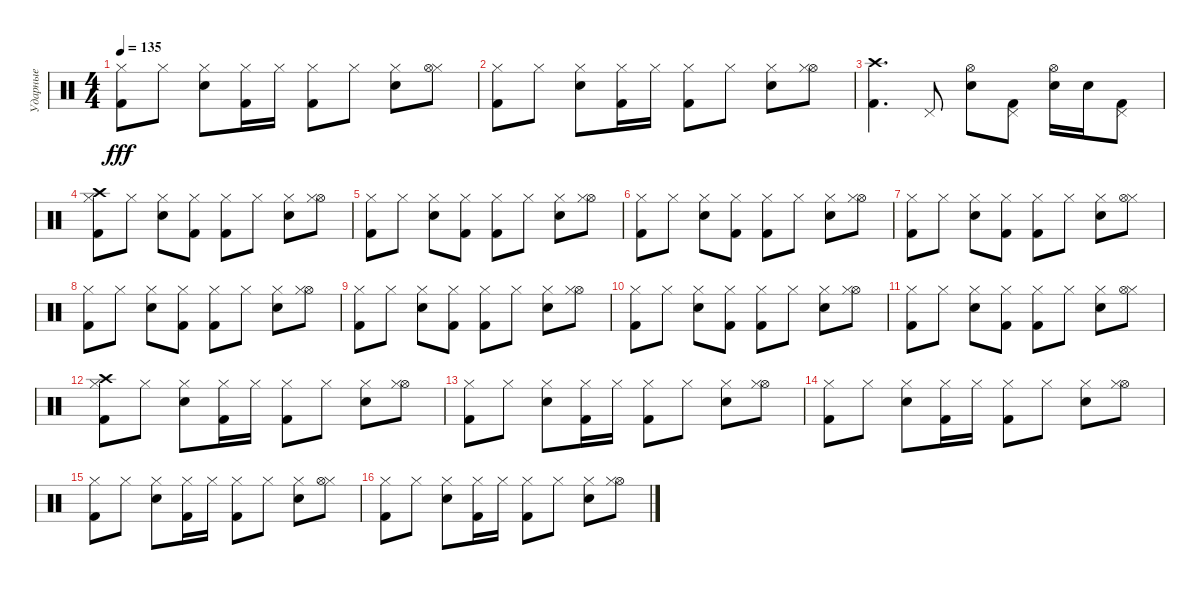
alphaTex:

\track ("Ударные" "Ударные") {instrument percussion}
\staff {score}
\articulation defaults
\ts (4 4)
\tempo 135
\clef neutral
\ks c
("Hi-Hat (closed)" "Kick (hit) 2").8{dy fff} "Hi-Hat (closed)".8 ("Hi-Hat (closed)" "Snare (hit) 2").8 ("Kick (hit) 2" "Hi-Hat (closed)").16 "Hi-Hat (closed)".16 ("Hi-Hat (closed)" "Kick (hit) 2").8 "Hi-Hat (closed)".8 ("Snare (hit) 2" "Hi-Hat (closed)").8 ("Hi-Hat (closed)" "Hi-Hat (open)").8 |
("Hi-Hat (closed)" "Kick (hit) 2").8 "Hi-Hat (closed)".8 ("Hi-Hat (closed)" "Snare (hit) 2").8 ("Hi-Hat (closed)" "Kick (hit) 2").16 "Hi-Hat (closed)".16 ("Hi-Hat (closed)" "Kick (hit) 2").8 "Hi-Hat (closed)".8 ("Snare (hit) 2" "Hi-Hat (closed)").8 ("Hi-Hat (open)" "Hi-Hat (closed)").8 |
("Crash high (hit)" "Kick (hit) 2").4{d} "Pedal Hi-Hat (hit)".8 ("Snare (hit) 2" "Hi-Hat (open)").8 ("Kick (hit) 2" "Pedal Hi-Hat (hit)").8 ("Hi-Hat (open)" "Snare (hit) 2").16 "Snare (hit) 2".16 ("Kick (hit) 2" "Pedal Hi-Hat (hit)").8 |
("Crash high (hit)" "Hi-Hat (closed)" "Kick (hit) 2").8 "Hi-Hat (closed)".8 ("Hi-Hat (closed)" "Snare (hit) 2").8 ("Hi-Hat (closed)" "Kick (hit) 2").8 ("Hi-Hat (closed)" "Kick (hit) 2").8 "Hi-Hat (closed)".8 ("Snare (hit) 2" "Hi-Hat (closed)").8 ("Hi-Hat (open)" "Hi-Hat (closed)").8 |
("Hi-Hat (closed)" "Kick (hit) 2").8 "Hi-Hat (closed)".8 ("Hi-Hat (closed)" "Snare (hit) 2").8 ("Kick (hit) 2" "Hi-Hat (closed)").8 ("Hi-Hat (closed)" "Kick (hit) 2").8 "Hi-Hat (closed)".8 ("Hi-Hat (closed)" "Snare (hit) 2").8 ("Hi-Hat (open)" "Hi-Hat (closed)").8 |
("Hi-Hat (closed)" "Kick (hit) 2").8 "Hi-Hat (closed)".8 ("Snare (hit) 2" "Hi-Hat (closed)").8 ("Hi-Hat (closed)" "Kick (hit) 2").8 ("Hi-Hat (closed)" "Kick (hit) 2").8 "Hi-Hat (closed)".8 ("Hi-Hat (closed)" "Snare (hit) 2").8 ("Hi-Hat (open)" "Hi-Hat (closed)").8 |
("Hi-Hat (closed)" "Kick (hit) 2").8 "Hi-Hat (closed)".8 ("Hi-Hat (closed)" "Snare (hit) 2").8 ("Kick (hit) 2" "Hi-Hat (closed)").8 ("Hi-Hat (closed)" "Kick (hit) 2").8 "Hi-Hat (closed)".8 ("Snare (hit) 2" "Hi-Hat (closed)").8 ("Hi-Hat (closed)" "Hi-Hat (open)").8 |
("Hi-Hat (closed)" "Kick (hit) 2").8 "Hi-Hat (closed)".8 ("Hi-Hat (closed)" "Snare (hit) 2").8 ("Hi-Hat (closed)" "Kick (hit) 2").8 ("Hi-Hat (closed)" "Kick (hit) 2").8 "Hi-Hat (closed)".8 ("Snare (hit) 2" "Hi-Hat (closed)").8 ("Hi-Hat (open)" "Hi-Hat (closed)").8 |
("Hi-Hat (closed)" "Kick (hit) 2").8 "Hi-Hat (closed)".8 ("Hi-Hat (closed)" "Snare (hit) 2").8 ("Kick (hit) 2" "Hi-Hat (closed)").8 ("Hi-Hat (closed)" "Kick (hit) 2").8 "Hi-Hat (closed)".8 ("Hi-Hat (closed)" "Snare (hit) 2").8 ("Hi-Hat (open)" "Hi-Hat (closed)").8 |
("Hi-Hat (closed)" "Kick (hit) 2").8 "Hi-Hat (closed)".8 ("Snare (hit) 2" "Hi-Hat (closed)").8 ("Hi-Hat (closed)" "Kick (hit) 2").8 ("Hi-Hat (closed)" "Kick (hit) 2").8 "Hi-Hat (closed)".8 ("Hi-Hat (closed)" "Snare (hit) 2").8 ("Hi-Hat (open)" "Hi-Hat (closed)").8 |
("Hi-Hat (closed)" "Kick (hit) 2").8 "Hi-Hat (closed)".8 ("Hi-Hat (closed)" "Snare (hit) 2").8 ("Kick (hit) 2" "Hi-Hat (closed)").8 ("Hi-Hat (closed)" "Kick (hit) 2").8 "Hi-Hat (closed)".8 ("Snare (hit) 2" "Hi-Hat (closed)").8 ("Hi-Hat (closed)" "Hi-Hat (open)").8 |
("Crash high (hit)" "Hi-Hat (closed)" "Kick (hit) 2").8 "Hi-Hat (closed)".8 ("Hi-Hat (closed)" "Snare (hit) 2").8 ("Hi-Hat (closed)" "Kick (hit) 2").16 "Hi-Hat (closed)".16 ("Hi-Hat (closed)" "Kick (hit) 2").8 "Hi-Hat (closed)".8 ("Snare (hit) 2" "Hi-Hat (closed)").8 ("Hi-Hat (open)" "Hi-Hat (closed)").8 |
("Hi-Hat (closed)" "Kick (hit) 2").8 "Hi-Hat (closed)".8 ("Hi-Hat (closed)" "Snare (hit) 2").8 ("Kick (hit) 2" "Hi-Hat (closed)").16 "Hi-Hat (closed)".16 ("Hi-Hat (closed)" "Kick (hit) 2").8 "Hi-Hat (closed)".8 ("Hi-Hat (closed)" "Snare (hit) 2").8 ("Hi-Hat (open)" "Hi-Hat (closed)").8 |
("Hi-Hat (closed)" "Kick (hit) 2").8 "Hi-Hat (closed)".8 ("Snare (hit) 2" "Hi-Hat (closed)").8 ("Hi-Hat (closed)" "Kick (hit) 2").16 "Hi-Hat (closed)".16 ("Hi-Hat (closed)" "Kick (hit) 2").8 "Hi-Hat (closed)".8 ("Hi-Hat (closed)" "Snare (hit) 2").8 ("Hi-Hat (open)" "Hi-Hat (closed)").8 |
("Hi-Hat (closed)" "Kick (hit) 2").8 "Hi-Hat (closed)".8 ("Hi-Hat (closed)" "Snare (hit) 2").8 ("Kick (hit) 2" "Hi-Hat (closed)").16 "Hi-Hat (closed)".16 ("Hi-Hat (closed)" "Kick (hit) 2").8 "Hi-Hat (closed)".8 ("Snare (hit) 2" "Hi-Hat (closed)").8 ("Hi-Hat (closed)" "Hi-Hat (open)").8 |
("Hi-Hat (closed)" "Kick (hit) 2").8 "Hi-Hat (closed)".8 ("Hi-Hat (closed)" "Snare (hit) 2").8 ("Hi-Hat (closed)" "Kick (hit) 2").16 "Hi-Hat (closed)".16 ("Hi-Hat (closed)" "Kick (hit) 2").8 "Hi-Hat (closed)".8 ("Snare (hit) 2" "Hi-Hat (closed)").8 ("Hi-Hat (open)" "Hi-Hat (closed)").8
